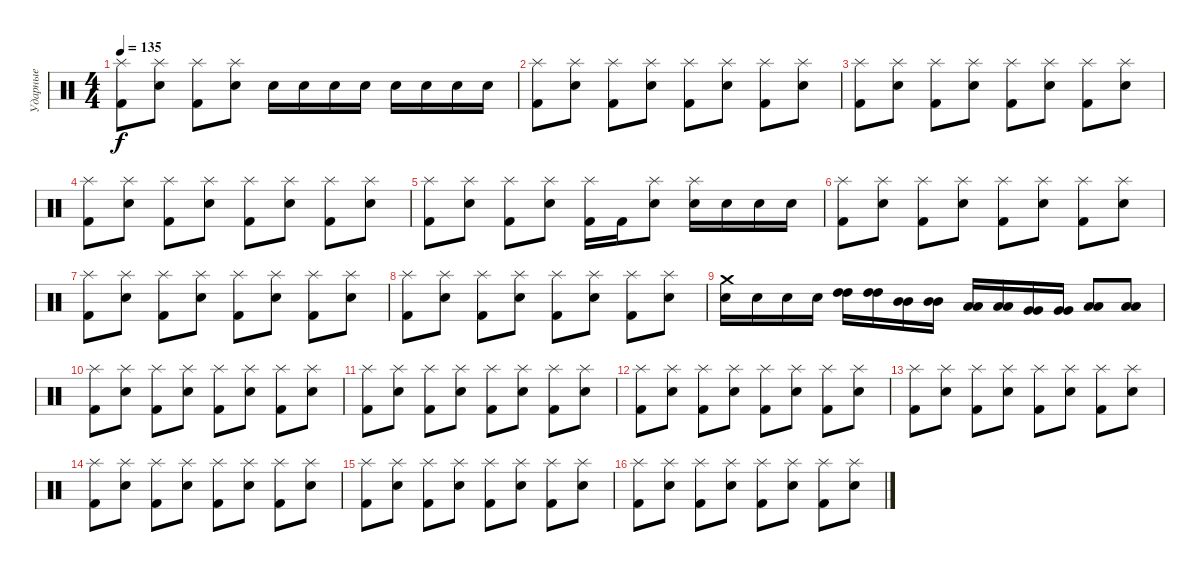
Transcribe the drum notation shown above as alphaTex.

\track ("Ударные" "Ударные") {instrument percussion}
\staff {score}
\articulation defaults
\ts (4 4)
\tempo 135
\clef neutral
\ks c
("Splash (hit)" "Kick (hit) 2").8{dy f} ("Splash (hit)" "Snare (hit) 2").8 ("Splash (hit)" "Kick (hit) 2").8 ("Splash (hit)" "Snare (hit) 2").8 "Snare (hit) 2".16 "Snare (hit) 2".16 "Snare (hit) 2".16 "Snare (hit) 2".16 "Snare (hit) 2".16 "Snare (hit) 2".16 "Snare (hit) 2".16 "Snare (hit) 2".16 |
("Splash (hit)" "Kick (hit) 2").8 ("Splash (hit)" "Snare (hit) 2").8 ("Splash (hit)" "Kick (hit) 2").8 ("Splash (hit)" "Snare (hit) 2").8 ("Splash (hit)" "Kick (hit) 2").8 ("Splash (hit)" "Snare (hit) 2").8 ("Splash (hit)" "Kick (hit) 2").8 ("Splash (hit)" "Snare (hit) 2").8 |
("Splash (hit)" "Kick (hit) 2").8 ("Splash (hit)" "Snare (hit) 2").8 ("Splash (hit)" "Kick (hit) 2").8 ("Splash (hit)" "Snare (hit) 2").8 ("Splash (hit)" "Kick (hit) 2").8 ("Splash (hit)" "Snare (hit) 2").8 ("Splash (hit)" "Kick (hit) 2").8 ("Splash (hit)" "Snare (hit) 2").8 |
("Splash (hit)" "Kick (hit) 2").8 ("Splash (hit)" "Snare (hit) 2").8 ("Splash (hit)" "Kick (hit) 2").8 ("Splash (hit)" "Snare (hit) 2").8 ("Splash (hit)" "Kick (hit) 2").8 ("Splash (hit)" "Snare (hit) 2").8 ("Splash (hit)" "Kick (hit) 2").8 ("Splash (hit)" "Snare (hit) 2").8 |
("Splash (hit)" "Kick (hit) 2").8 ("Splash (hit)" "Snare (hit) 2").8 ("Splash (hit)" "Kick (hit) 2").8 ("Splash (hit)" "Snare (hit) 2").8 ("Splash (hit)" "Kick (hit) 2").16 "Kick (hit) 2".16 ("Splash (hit)" "Snare (hit) 2").8 ("Splash (hit)" "Snare (hit) 2").16 "Snare (hit) 2".16 "Snare (hit) 2".16 "Snare (hit) 2".16 |
("Splash (hit)" "Kick (hit) 2").8 ("Splash (hit)" "Snare (hit) 2").8 ("Splash (hit)" "Kick (hit) 2").8 ("Splash (hit)" "Snare (hit) 2").8 ("Splash (hit)" "Kick (hit) 2").8 ("Splash (hit)" "Snare (hit) 2").8 ("Splash (hit)" "Kick (hit) 2").8 ("Splash (hit)" "Snare (hit) 2").8 |
("Splash (hit)" "Kick (hit) 2").8 ("Splash (hit)" "Snare (hit) 2").8 ("Splash (hit)" "Kick (hit) 2").8 ("Splash (hit)" "Snare (hit) 2").8 ("Splash (hit)" "Kick (hit) 2").8 ("Splash (hit)" "Snare (hit) 2").8 ("Splash (hit)" "Kick (hit) 2").8 ("Splash (hit)" "Snare (hit) 2").8 |
("Splash (hit)" "Kick (hit) 2").8 ("Splash (hit)" "Snare (hit) 2").8 ("Splash (hit)" "Kick (hit) 2").8 ("Splash (hit)" "Snare (hit) 2").8 ("Splash (hit)" "Kick (hit) 2").8 ("Splash (hit)" "Snare (hit) 2").8 ("Splash (hit)" "Kick (hit) 2").8 ("Splash (hit)" "Snare (hit) 2").8 |
("Crash medium (hit)" "Snare (hit) 2").16 "Snare (hit) 2".16 "Snare (hit) 2".16 "Snare (hit) 2".16 ("High Tom (hit)" "High Tom (hit)").16 ("High Tom (hit)" "High Tom (hit)").16 ("Mid Tom (hit)" "Mid Tom (hit)").16 ("Mid Tom (hit)" "Mid Tom (hit)").16 ("Low Tom (hit)" "Low Tom (hit)").16 ("Low Tom (hit)" "Low Tom (hit)").16 ("Very Low Tom (hit)" "Very Low Tom (hit)").16 ("Very Low Tom (hit)" "Very Low Tom (hit)").16 ("Low Floor Tom (hit)" "Low Floor Tom (hit)").8 ("Low Floor Tom (hit)" "Low Floor Tom (hit)").8 |
("Splash (hit)" "Kick (hit) 2").8 ("Splash (hit)" "Snare (hit) 2").8 ("Splash (hit)" "Kick (hit) 2").8 ("Splash (hit)" "Snare (hit) 2").8 ("Splash (hit)" "Kick (hit) 2").8 ("Splash (hit)" "Snare (hit) 2").8 ("Splash (hit)" "Kick (hit) 2").8 ("Splash (hit)" "Snare (hit) 2").8 |
("Splash (hit)" "Kick (hit) 2").8 ("Splash (hit)" "Snare (hit) 2").8 ("Splash (hit)" "Kick (hit) 2").8 ("Splash (hit)" "Snare (hit) 2").8 ("Splash (hit)" "Kick (hit) 2").8 ("Splash (hit)" "Snare (hit) 2").8 ("Splash (hit)" "Kick (hit) 2").8 ("Splash (hit)" "Snare (hit) 2").8 |
("Splash (hit)" "Kick (hit) 2").8 ("Splash (hit)" "Snare (hit) 2").8 ("Splash (hit)" "Kick (hit) 2").8 ("Splash (hit)" "Snare (hit) 2").8 ("Splash (hit)" "Kick (hit) 2").8 ("Splash (hit)" "Snare (hit) 2").8 ("Splash (hit)" "Kick (hit) 2").8 ("Splash (hit)" "Snare (hit) 2").8 |
("Splash (hit)" "Kick (hit) 2").8 ("Splash (hit)" "Snare (hit) 2").8 ("Splash (hit)" "Kick (hit) 2").8 ("Splash (hit)" "Snare (hit) 2").8 ("Splash (hit)" "Kick (hit) 2").8 ("Splash (hit)" "Snare (hit) 2").8 ("Splash (hit)" "Kick (hit) 2").8 ("Splash (hit)" "Snare (hit) 2").8 |
("Splash (hit)" "Kick (hit) 2").8 ("Splash (hit)" "Snare (hit) 2").8 ("Splash (hit)" "Kick (hit) 2").8 ("Splash (hit)" "Snare (hit) 2").8 ("Splash (hit)" "Kick (hit) 2").8 ("Splash (hit)" "Snare (hit) 2").8 ("Splash (hit)" "Kick (hit) 2").8 ("Splash (hit)" "Snare (hit) 2").8 |
("Splash (hit)" "Kick (hit) 2").8 ("Splash (hit)" "Snare (hit) 2").8 ("Splash (hit)" "Kick (hit) 2").8 ("Splash (hit)" "Snare (hit) 2").8 ("Splash (hit)" "Kick (hit) 2").8 ("Splash (hit)" "Snare (hit) 2").8 ("Splash (hit)" "Kick (hit) 2").8 ("Splash (hit)" "Snare (hit) 2").8 |
("Splash (hit)" "Kick (hit) 2").8 ("Splash (hit)" "Snare (hit) 2").8 ("Splash (hit)" "Kick (hit) 2").8 ("Splash (hit)" "Snare (hit) 2").8 ("Splash (hit)" "Kick (hit) 2").8 ("Splash (hit)" "Snare (hit) 2").8 ("Splash (hit)" "Kick (hit) 2").8 ("Splash (hit)" "Snare (hit) 2").8
